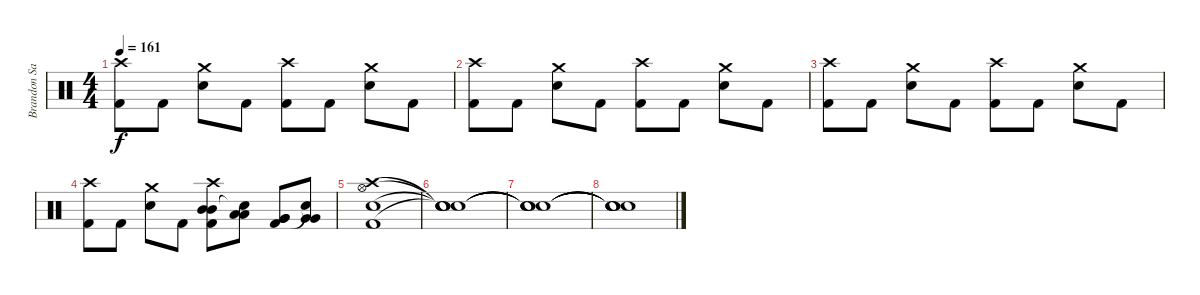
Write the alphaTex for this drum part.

\track ("Brandon Saller" "Brandon Sa") {instrument percussion}
\staff {score}
\articulation defaults
\ts (4 4)
\tempo 161
\clef neutral
\ks c
("Crash high (hit)" "Kick (hit) 2").8{dy f} "Kick (hit) 2".8 ("Crash medium (hit)" "Electric Snare (hit)").8 "Kick (hit) 2".8 ("Crash high (hit)" "Kick (hit) 2").8 "Kick (hit) 2".8 ("Crash medium (hit)" "Electric Snare (hit)").8 "Kick (hit) 2".8 |
("Crash high (hit)" "Kick (hit) 2").8 "Kick (hit) 2".8 ("Crash medium (hit)" "Electric Snare (hit)").8 "Kick (hit) 2".8 ("Crash high (hit)" "Kick (hit) 2").8 "Kick (hit) 2".8 ("Crash medium (hit)" "Electric Snare (hit)").8 "Kick (hit) 2".8 |
("Crash high (hit)" "Kick (hit) 2").8 "Kick (hit) 2".8 ("Crash medium (hit)" "Electric Snare (hit)").8 "Kick (hit) 2".8 ("Crash high (hit)" "Kick (hit) 2").8 "Kick (hit) 2".8 ("Crash medium (hit)" "Electric Snare (hit)").8 "Kick (hit) 2".8 |
("Crash high (hit)" "Kick (hit) 2").8 "Kick (hit) 2".8 ("Crash medium (hit)" "Electric Snare (hit)").8 "Kick (hit) 2".8 ("Crash high (hit)" "Mid Tom (hit)" "Mid Tom (hit)" "Kick (hit) 2").8 ("Low Tom (hit)" "Low Tom (hit)" "Snare (hit)"{t}).8 ("Very Low Tom (hit)" "Very Low Tom (hit)" "Kick (hit) 2").8 ("Very Low Tom (hit)" "Very Low Tom (hit)" "Snare (hit)"{t}).8 |
("Kick (hit) 2" "Snare (hit) 2" "Hi-Hat (open)" "Crash high (hit)").1 |
("Snare (hit)"{t} "Snare (hit)"{t} "Snare (hit)"{t} "Snare (hit)"{t}).1 |
("Snare (hit)"{t} "Snare (hit)"{t} "Snare (hit)"{t} "Snare (hit)"{t}).1 |
("Snare (hit)"{t} "Snare (hit)"{t} "Snare (hit)"{t} "Snare (hit)"{t}).1
